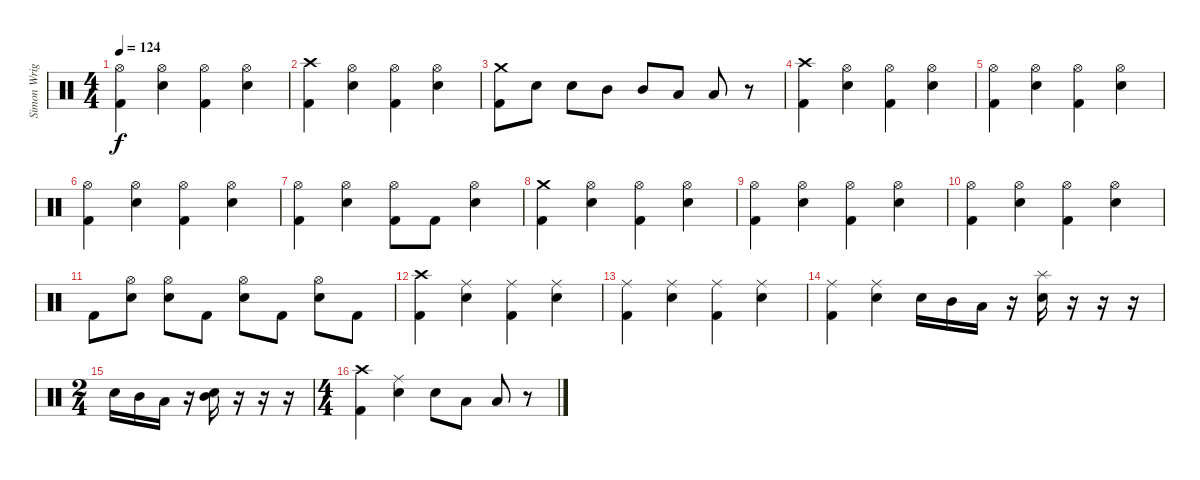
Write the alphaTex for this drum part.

\track ("Simon Wright" "Simon Wrig") {instrument percussion}
\staff {score}
\articulation defaults
\ts (4 4)
\tempo 124
\clef neutral
\ks c
("Hi-Hat (open)" "Kick (hit) 2").4{dy f} ("Hi-Hat (open)" "Electric Snare (hit)").4 ("Hi-Hat (open)" "Kick (hit) 2").4 ("Hi-Hat (open)" "Electric Snare (hit)").4 |
("Crash high (hit)" "Kick (hit) 2").4 ("Hi-Hat (open)" "Electric Snare (hit)").4 ("Hi-Hat (open)" "Kick (hit) 2").4 ("Hi-Hat (open)" "Electric Snare (hit)").4 |
("Crash medium (hit)" "Kick (hit) 2").8 "Electric Snare (hit)".8 "Electric Snare (hit)".8 "Mid Tom (hit)".8 "Mid Tom (hit)".8 "Low Tom (hit)".8 "Low Tom (hit)".8 r.8 |
("Crash high (hit)" "Kick (hit) 2").4 ("Hi-Hat (open)" "Electric Snare (hit)").4 ("Hi-Hat (open)" "Kick (hit) 2").4 ("Hi-Hat (open)" "Electric Snare (hit)").4 |
("Hi-Hat (open)" "Kick (hit) 2").4 ("Hi-Hat (open)" "Electric Snare (hit)").4 ("Hi-Hat (open)" "Kick (hit) 2").4 ("Hi-Hat (open)" "Electric Snare (hit)").4 |
("Hi-Hat (open)" "Kick (hit) 2").4 ("Hi-Hat (open)" "Electric Snare (hit)").4 ("Hi-Hat (open)" "Kick (hit) 2").4 ("Hi-Hat (open)" "Electric Snare (hit)").4 |
("Hi-Hat (open)" "Kick (hit) 2").4 ("Hi-Hat (open)" "Electric Snare (hit)").4 ("Hi-Hat (open)" "Kick (hit) 2").8 "Kick (hit) 2".8 ("Hi-Hat (open)" "Electric Snare (hit)").4 |
("Crash medium (hit)" "Kick (hit) 2").4 ("Hi-Hat (open)" "Electric Snare (hit)").4 ("Hi-Hat (open)" "Kick (hit) 2").4 ("Hi-Hat (open)" "Electric Snare (hit)").4 |
("Hi-Hat (open)" "Kick (hit) 2").4 ("Hi-Hat (open)" "Electric Snare (hit)").4 ("Hi-Hat (open)" "Kick (hit) 2").4 ("Hi-Hat (open)" "Electric Snare (hit)").4 |
("Hi-Hat (open)" "Kick (hit) 2").4 ("Hi-Hat (open)" "Electric Snare (hit)").4 ("Hi-Hat (open)" "Kick (hit) 2").4 ("Hi-Hat (open)" "Electric Snare (hit)").4 |
"Kick (hit) 2".8 ("Hi-Hat (open)" "Electric Snare (hit)").8 ("Hi-Hat (open)" "Electric Snare (hit)").8 "Kick (hit) 2".8 ("Hi-Hat (open)" "Electric Snare (hit)").8 "Kick (hit) 2".8 ("Hi-Hat (open)" "Electric Snare (hit)").8 "Kick (hit) 2".8 |
("Crash high (hit)" "Kick (hit) 2").4 ("Ride (middle)" "Electric Snare (hit)").4 ("Ride (middle)" "Kick (hit) 2").4 ("Ride (middle)" "Electric Snare (hit)").4 |
("Ride (middle)" "Kick (hit) 2").4 ("Ride (middle)" "Electric Snare (hit)").4 ("Ride (middle)" "Kick (hit) 2").4 ("Ride (middle)" "Electric Snare (hit)").4 |
("Ride (middle)" "Kick (hit) 2").4 ("Ride (middle)" "Electric Snare (hit)").4 "Electric Snare (hit)".16 "Mid Tom (hit)".16 "Low Tom (hit)".16 r.16 ("Splash (hit)" "Electric Snare (hit)").16 r.16 r.16 r.16 |
\ts (2 4)
"Electric Snare (hit)".16 "Mid Tom (hit)".16 "Low Tom (hit)".16 r.16 ("Mid Tom (hit)" "Electric Snare (hit)").16 r.16 r.16 r.16 |
\ts (4 4)
("Crash high (hit)" "Kick (hit) 2").4 ("Ride (middle)" "Electric Snare (hit)").4 "Electric Snare (hit)".8 "Low Tom (hit)".8 "Low Tom (hit)".8 r.8
